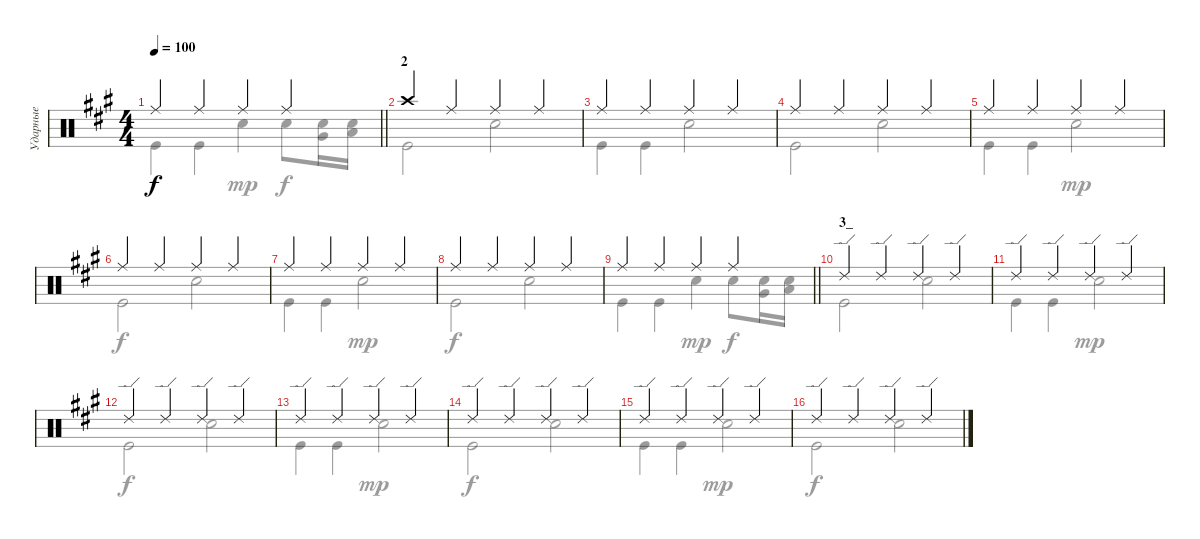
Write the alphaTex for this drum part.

\track ("Ударные" "Ударные") {instrument percussion}
\staff {score}
\articulation defaults
\voice
\ts (4 4)
\tempo 100
\clef neutral
\barLineRight lightlight
\ks f#minor "Ride (middle)".4{dy f} "Ride (middle)".4 "Ride (middle)".4 "Ride (middle)".4
|
\section ("" "2")
"Crash high (hit)".4 "Ride (middle)".4 "Ride (middle)".4 "Ride (middle)".4 |
"Ride (middle)".4 "Ride (middle)".4 "Ride (middle)".4 "Ride (middle)".4 |
"Ride (middle)".4 "Ride (middle)".4 "Ride (middle)".4 "Ride (middle)".4 |
"Ride (middle)".4 "Ride (middle)".4 "Ride (middle)".4 "Ride (middle)".4 |
"Ride (middle)".4 "Ride (middle)".4 "Ride (middle)".4 "Ride (middle)".4 |
"Ride (middle)".4 "Ride (middle)".4 "Ride (middle)".4 "Ride (middle)".4 |
"Ride (middle)".4 "Ride (middle)".4 "Ride (middle)".4 "Ride (middle)".4 |
\barLineRight lightlight "Ride (middle)".4 "Ride (middle)".4 "Ride (middle)".4 "Ride (middle)".4
|
\section ("" "3_")
"Ride (edge) 2".4 "Ride (edge) 2".4 "Ride (edge) 2".4 "Ride (edge) 2".4 |
"Ride (edge) 2".4 "Ride (edge) 2".4 "Ride (edge) 2".4 "Ride (edge) 2".4 |
"Ride (edge) 2".4 "Ride (edge) 2".4 "Ride (edge) 2".4 "Ride (edge) 2".4 |
"Ride (edge) 2".4 "Ride (edge) 2".4 "Ride (edge) 2".4 "Ride (edge) 2".4 |
"Ride (edge) 2".4 "Ride (edge) 2".4 "Ride (edge) 2".4 "Ride (edge) 2".4 |
"Ride (edge) 2".4 "Ride (edge) 2".4 "Ride (edge) 2".4 "Ride (edge) 2".4 |
"Ride (edge) 2".4 "Ride (edge) 2".4 "Ride (edge) 2".4 "Ride (edge) 2".4
\voice
\clef neutral
\ottava regular
\simile none
\barLineRight lightlight
\ks f#minor "Kick (hit)".4{dy f} "Kick (hit)".4 "Snare (hit) 2".4{dy mp} "Snare (hit) 2".8{dy f}
("Snare (hit) 2" "Very Low Tom (hit)").16 ("Snare (hit) 2" "Low Floor Tom (hit)").16 |
"Kick (hit)".2 "Snare (hit) 2".2 |
"Kick (hit)".4 "Kick (hit)".4 "Snare (hit) 2".2 |
"Kick (hit)".2 "Snare (hit) 2".2 |
"Kick (hit)".4 "Kick (hit)".4 "Snare (hit) 2".2{dy mp} |
"Kick (hit)".2{dy f} "Snare (hit) 2".2 |
"Kick (hit)".4 "Kick (hit)".4 "Snare (hit) 2".2{dy mp} |
"Kick (hit)".2{dy f} "Snare (hit) 2".2 |
\barLineRight lightlight "Kick (hit)".4 "Kick (hit)".4 "Snare (hit) 2".4{dy mp} "Snare (hit) 2".8{dy f}
("Snare (hit) 2" "Very Low Tom (hit)").16 ("Snare (hit) 2" "Low Floor Tom (hit)").16 |
"Kick (hit)".2 "Snare (hit) 2".2 |
"Kick (hit)".4 "Kick (hit)".4 "Snare (hit) 2".2{dy mp} |
"Kick (hit)".2{dy f} "Snare (hit) 2".2 |
"Kick (hit)".4 "Kick (hit)".4 "Snare (hit) 2".2{dy mp} |
"Kick (hit)".2{dy f} "Snare (hit) 2".2 |
"Kick (hit)".4 "Kick (hit)".4 "Snare (hit) 2".2{dy mp} |
"Kick (hit)".2{dy f} "Snare (hit) 2".2
